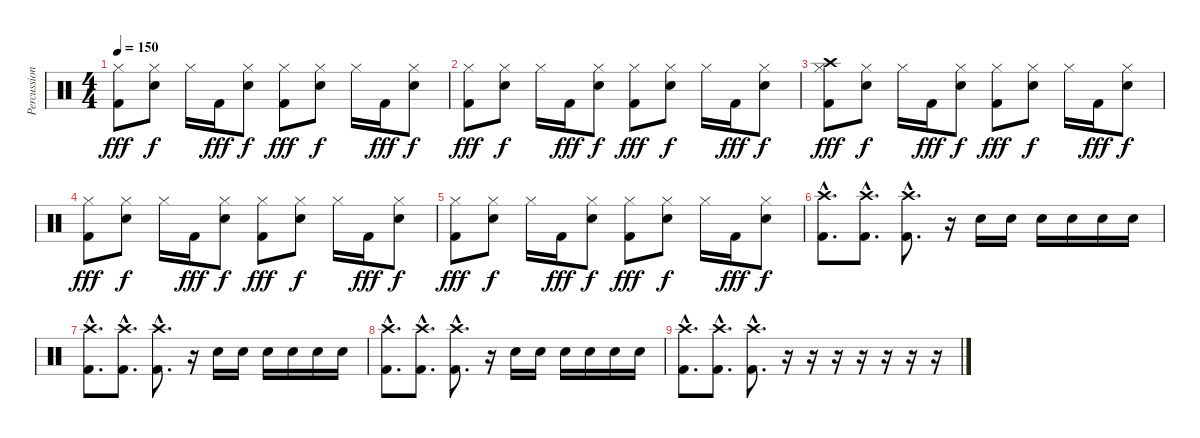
\track ("Percussions" "Percussion") {instrument percussion}
\staff {score}
\articulation defaults
\ts (4 4)
\tempo 150
\clef neutral
\ks c
("Hi-Hat (closed)" "Kick (hit) 2").8{dy fff} ("Hi-Hat (closed)" "Snare (hit) 2").8{dy f} "Hi-Hat (closed)".16 "Kick (hit) 2".16{dy fff} ("Hi-Hat (closed)" "Snare (hit) 2").8{dy f} ("Hi-Hat (closed)" "Kick (hit) 2").8{dy fff} ("Hi-Hat (closed)" "Snare (hit) 2").8{dy f} "Hi-Hat (closed)".16 "Kick (hit) 2".16{dy fff} ("Hi-Hat (closed)" "Snare (hit) 2").8{dy f} |
("Hi-Hat (closed)" "Kick (hit) 2").8{dy fff} ("Hi-Hat (closed)" "Snare (hit) 2").8{dy f} "Hi-Hat (closed)".16 "Kick (hit) 2".16{dy fff} ("Hi-Hat (closed)" "Snare (hit) 2").8{dy f} ("Hi-Hat (closed)" "Kick (hit) 2").8{dy fff} ("Hi-Hat (closed)" "Snare (hit) 2").8{dy f} "Hi-Hat (closed)".16 "Kick (hit) 2".16{dy fff} ("Hi-Hat (closed)" "Snare (hit) 2").8{dy f} |
("Crash high (hit)" "Hi-Hat (closed)" "Kick (hit) 2").8{dy fff} ("Hi-Hat (closed)" "Snare (hit) 2").8{dy f} "Hi-Hat (closed)".16 "Kick (hit) 2".16{dy fff} ("Hi-Hat (closed)" "Snare (hit) 2").8{dy f} ("Hi-Hat (closed)" "Kick (hit) 2").8{dy fff} ("Hi-Hat (closed)" "Snare (hit) 2").8{dy f} "Hi-Hat (closed)".16 "Kick (hit) 2".16{dy fff} ("Hi-Hat (closed)" "Snare (hit) 2").8{dy f} |
("Hi-Hat (closed)" "Kick (hit) 2").8{dy fff} ("Hi-Hat (closed)" "Snare (hit) 2").8{dy f} "Hi-Hat (closed)".16 "Kick (hit) 2".16{dy fff} ("Hi-Hat (closed)" "Snare (hit) 2").8{dy f} ("Hi-Hat (closed)" "Kick (hit) 2").8{dy fff} ("Hi-Hat (closed)" "Snare (hit) 2").8{dy f} "Hi-Hat (closed)".16 "Kick (hit) 2".16{dy fff} ("Hi-Hat (closed)" "Snare (hit) 2").8{dy f} |
("Hi-Hat (closed)" "Kick (hit) 2").8{dy fff} ("Hi-Hat (closed)" "Snare (hit) 2").8{dy f} "Hi-Hat (closed)".16 "Kick (hit) 2".16{dy fff} ("Hi-Hat (closed)" "Snare (hit) 2").8{dy f} ("Hi-Hat (closed)" "Kick (hit) 2").8{dy fff} ("Hi-Hat (closed)" "Snare (hit) 2").8{dy f} "Hi-Hat (closed)".16 "Kick (hit) 2".16{dy fff} ("Hi-Hat (closed)" "Snare (hit) 2").8{dy f} |
("Crash high (hit)"{hac} "Kick (hit) 2"{hac}).8{d} ("Crash high (hit)"{hac} "Kick (hit) 2"{hac}).8{d} ("Crash high (hit)"{hac} "Kick (hit) 2"{hac}).8{d} r.16 "Electric Snare (hit)".16 "Electric Snare (hit)".16 "Electric Snare (hit)".16 "Electric Snare (hit)".16 "Electric Snare (hit)".16 "Electric Snare (hit)".16 |
("Crash high (hit)"{hac} "Kick (hit) 2"{hac}).8{d} ("Crash high (hit)"{hac} "Kick (hit) 2"{hac}).8{d} ("Crash high (hit)"{hac} "Kick (hit) 2"{hac}).8{d} r.16 "Electric Snare (hit)".16 "Electric Snare (hit)".16 "Electric Snare (hit)".16 "Electric Snare (hit)".16 "Electric Snare (hit)".16 "Electric Snare (hit)".16 |
("Crash high (hit)"{hac} "Kick (hit) 2"{hac}).8{d} ("Crash high (hit)"{hac} "Kick (hit) 2"{hac}).8{d} ("Crash high (hit)"{hac} "Kick (hit) 2"{hac}).8{d} r.16 "Electric Snare (hit)".16 "Electric Snare (hit)".16 "Electric Snare (hit)".16 "Electric Snare (hit)".16 "Electric Snare (hit)".16 "Electric Snare (hit)".16 |
("Crash high (hit)"{hac} "Kick (hit) 2"{hac}).8{d} ("Crash high (hit)"{hac} "Kick (hit) 2"{hac}).8{d} ("Crash high (hit)"{hac} "Kick (hit) 2"{hac}).8{d} r.16 r.16 r.16 r.16 r.16 r.16 r.16
